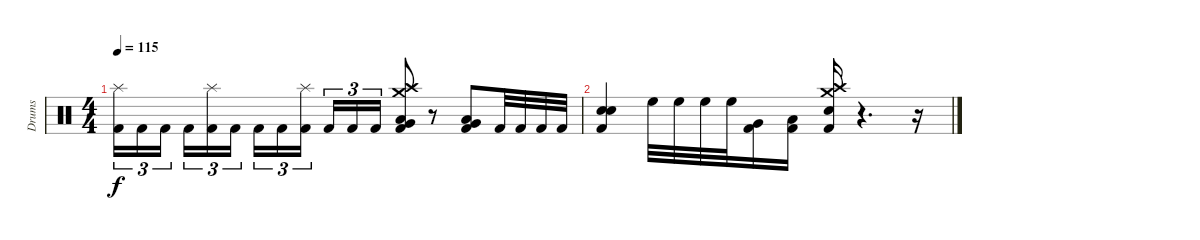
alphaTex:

\track ("Drums" "Drums") {instrument percussion}
\staff {score}
\articulation defaults
\ts (4 4)
\tempo 115
\clef neutral
\ks c
("Splash (hit)" "Kick (hit) 2").16{tu (3 2) dy f} "Kick (hit) 2".16{tu (3 2)} "Kick (hit) 2".16{tu (3 2) beam splitsecondary} "Kick (hit) 2".16{tu (3 2)} ("Splash (hit)" "Kick (hit) 2").16{tu (3 2)} "Kick (hit) 2".16{tu (3 2)} "Kick (hit) 2".16{tu (3 2)} "Kick (hit) 2".16{tu (3 2)} ("Splash (hit)" "Kick (hit) 2").16{tu (3 2) beam splitsecondary} "Kick (hit) 2".16{tu (3 2)} "Kick (hit) 2".16{tu (3 2)} "Kick (hit) 2".16{tu (3 2)} ("Crash medium (hit)" "Crash high (hit)" "Very Low Tom (hit)" "Low Floor Tom (hit)" "Kick (hit) 2").8 r.8 ("Low Floor Tom (hit)" "Very Low Tom (hit)" "Kick (hit) 2").8 "Kick (hit) 2".32 "Kick (hit) 2".32 "Kick (hit) 2".32 "Kick (hit) 2".32 |
("Electric Snare (hit)" "Electric Snare (hit)" "Kick (hit) 2").4 "High Floor Tom (hit)".32 "High Floor Tom (hit)".32 "High Floor Tom (hit)".32 "High Floor Tom (hit)".32 ("Very Low Tom (hit)" "Kick (hit) 2").16 ("Low Floor Tom (hit)" "Kick (hit) 2").16 ("Crash medium (hit)" "Crash high (hit)" "Electric Snare (hit)" "Kick (hit) 2").16 r.4{d} r.16
